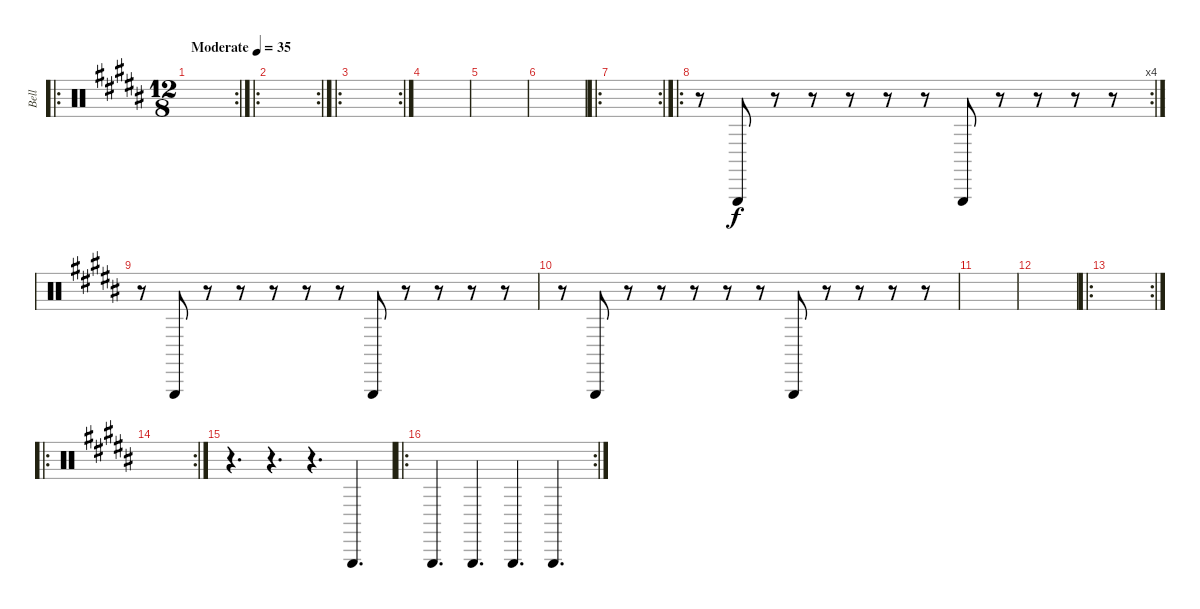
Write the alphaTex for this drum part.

\track ("Bell" "Bell") {instrument percussion}
\staff {score}
\articulation defaults
\ro
\rc 2
\ts (12 8)
\tempo (35 "Moderate")
\clef neutral
\ks b
|
\ro
\rc 2
|
\ro
\rc 2
|
|
|
|
\ro
\rc 2
|
\ro
\rc 4
r.8 "Triangle (hit)".8 r.8 r.8 r.8 r.8 r.8 "Triangle (hit)".8 r.8 r.8 r.8 r.8 |
r.8 "Triangle (hit)".8 r.8 r.8 r.8 r.8 r.8 "Triangle (hit)".8 r.8 r.8 r.8 r.8 |
r.8 "Triangle (hit)".8 r.8 r.8 r.8 r.8 r.8 "Triangle (hit)".8 r.8 r.8 r.8 r.8 |
|
|
\ro
\rc 2
|
\ro
\rc 2
|
r.4{d} r.4{d} r.4{d} "Triangle (hit)".4{d} |
\ro
\rc 2 "Triangle (hit)".4{d} "Triangle (hit)".4{d} "Triangle (hit)".4{d} "Triangle (hit)".4{d}
